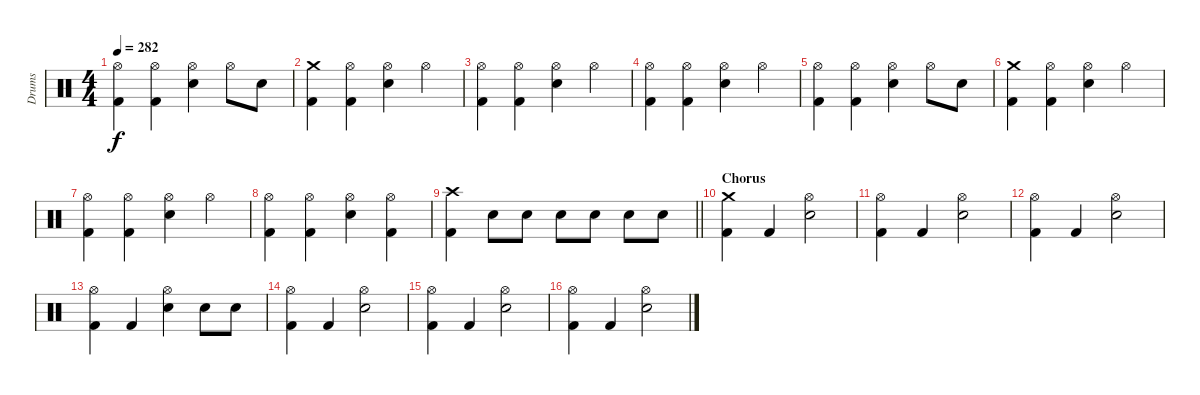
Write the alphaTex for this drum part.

\track ("Drums" "Drums") {instrument percussion}
\staff {score}
\articulation defaults
\ts (4 4)
\tempo 282
\clef neutral
\ks c
("Hi-Hat (open)" "Kick (hit) 2").4{dy f} ("Hi-Hat (open)" "Kick (hit) 2").4 ("Hi-Hat (open)" "Electric Snare (hit)").4 "Hi-Hat (open)".8 "Electric Snare (hit)".8 |
("Crash medium (hit)" "Kick (hit) 2").4 ("Hi-Hat (open)" "Kick (hit) 2").4 ("Hi-Hat (open)" "Electric Snare (hit)").4 "Hi-Hat (open)".4 |
("Hi-Hat (open)" "Kick (hit) 2").4 ("Hi-Hat (open)" "Kick (hit) 2").4 ("Hi-Hat (open)" "Electric Snare (hit)").4 "Hi-Hat (open)".4 |
("Hi-Hat (open)" "Kick (hit) 2").4 ("Hi-Hat (open)" "Kick (hit) 2").4 ("Hi-Hat (open)" "Electric Snare (hit)").4 "Hi-Hat (open)".4 |
("Hi-Hat (open)" "Kick (hit) 2").4 ("Hi-Hat (open)" "Kick (hit) 2").4 ("Hi-Hat (open)" "Electric Snare (hit)").4 "Hi-Hat (open)".8 "Electric Snare (hit)".8 |
("Crash medium (hit)" "Kick (hit) 2").4 ("Hi-Hat (open)" "Kick (hit) 2").4 ("Hi-Hat (open)" "Electric Snare (hit)").4 "Hi-Hat (open)".4 |
("Hi-Hat (open)" "Kick (hit) 2").4 ("Hi-Hat (open)" "Kick (hit) 2").4 ("Hi-Hat (open)" "Electric Snare (hit)").4 "Hi-Hat (open)".4 |
("Hi-Hat (open)" "Kick (hit) 2").4 ("Hi-Hat (open)" "Kick (hit) 2").4 ("Hi-Hat (open)" "Electric Snare (hit)").4 ("Hi-Hat (open)" "Kick (hit) 2").4 |
\barLineRight lightlight
("Crash high (hit)" "Kick (hit) 2").4 "Electric Snare (hit)".8 "Electric Snare (hit)".8 "Electric Snare (hit)".8 "Electric Snare (hit)".8 "Electric Snare (hit)".8 "Electric Snare (hit)".8 |
\section ("" "Chorus")
("Crash medium (hit)" "Kick (hit) 2").4 "Kick (hit) 2".4 ("Hi-Hat (open)" "Electric Snare (hit)").2 |
("Hi-Hat (open)" "Kick (hit) 2").4 "Kick (hit) 2".4 ("Hi-Hat (open)" "Electric Snare (hit)").2 |
("Hi-Hat (open)" "Kick (hit) 2").4 "Kick (hit) 2".4 ("Hi-Hat (open)" "Electric Snare (hit)").2 |
("Hi-Hat (open)" "Kick (hit) 2").4 "Kick (hit) 2".4 ("Hi-Hat (open)" "Electric Snare (hit)").4 "Electric Snare (hit)".8 "Electric Snare (hit)".8 |
("Hi-Hat (open)" "Kick (hit) 2").4 "Kick (hit) 2".4 ("Hi-Hat (open)" "Electric Snare (hit)").2 |
("Hi-Hat (open)" "Kick (hit) 2").4 "Kick (hit) 2".4 ("Hi-Hat (open)" "Electric Snare (hit)").2 |
("Hi-Hat (open)" "Kick (hit) 2").4 "Kick (hit) 2".4 ("Hi-Hat (open)" "Electric Snare (hit)").2
